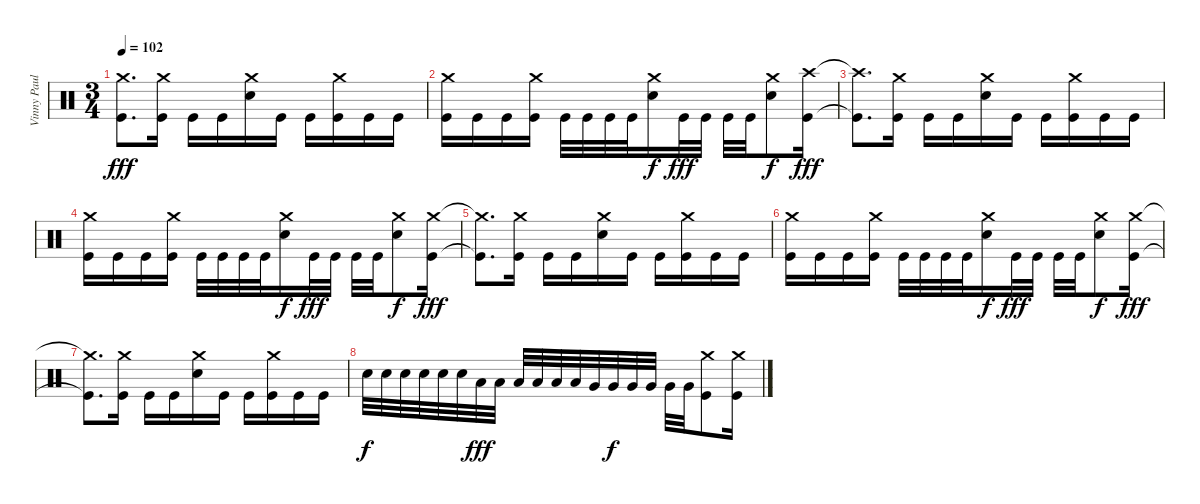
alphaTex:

\track ("Vinny Paul" "Vinny Paul") {instrument percussion}
\staff {score}
\articulation defaults
\ts (3 4)
\tempo 102
\clef neutral
\ks c
("Crash medium (hit)" "Kick (hit)").8{d dy fff} ("Crash medium (hit)" "Kick (hit)").16 "Kick (hit)".16 "Kick (hit)".16 ("Crash medium (hit)" "Electric Snare (hit)").16 "Kick (hit)".16 "Kick (hit)".16 ("Crash medium (hit)" "Kick (hit)").16 "Kick (hit)".16 "Kick (hit)".16 |
("Crash medium (hit)" "Kick (hit)").16 "Kick (hit)".16 "Kick (hit)".16 ("Crash medium (hit)" "Kick (hit)").16 "Kick (hit)".32 "Kick (hit)".32 "Kick (hit)".32 "Kick (hit)".32 ("Crash medium (hit)" "Electric Snare (hit)").16{dy f} "Kick (hit)".32{dy fff} "Kick (hit)".32 "Kick (hit)".32 "Kick (hit)".32 ("Crash medium (hit)" "Electric Snare (hit)").8{dy f} ("Crash high (hit)" "Kick (hit)").16{dy fff} |
("Crash high (hit)"{t} "Kick (hit)"{t}).8{d} ("Crash medium (hit)" "Kick (hit)").16 "Kick (hit)".16 "Kick (hit)".16 ("Crash medium (hit)" "Electric Snare (hit)").16 "Kick (hit)".16 "Kick (hit)".16 ("Crash medium (hit)" "Kick (hit)").16 "Kick (hit)".16 "Kick (hit)".16 |
("Crash medium (hit)" "Kick (hit)").16 "Kick (hit)".16 "Kick (hit)".16 ("Crash medium (hit)" "Kick (hit)").16 "Kick (hit)".32 "Kick (hit)".32 "Kick (hit)".32 "Kick (hit)".32 ("Crash medium (hit)" "Electric Snare (hit)").16{dy f} "Kick (hit)".32{dy fff} "Kick (hit)".32 "Kick (hit)".32 "Kick (hit)".32 ("Crash medium (hit)" "Electric Snare (hit)").8{dy f} ("Crash medium (hit)" "Kick (hit)").16{dy fff} |
("Crash medium (hit)"{t} "Kick (hit)"{t}).8{d} ("Crash medium (hit)" "Kick (hit)").16 "Kick (hit)".16 "Kick (hit)".16 ("Crash medium (hit)" "Electric Snare (hit)").16 "Kick (hit)".16 "Kick (hit)".16 ("Crash medium (hit)" "Kick (hit)").16 "Kick (hit)".16 "Kick (hit)".16 |
("Crash medium (hit)" "Kick (hit)").16 "Kick (hit)".16 "Kick (hit)".16 ("Crash medium (hit)" "Kick (hit)").16 "Kick (hit)".32 "Kick (hit)".32 "Kick (hit)".32 "Kick (hit)".32 ("Crash medium (hit)" "Electric Snare (hit)").16{dy f} "Kick (hit)".32{dy fff} "Kick (hit)".32 "Kick (hit)".32 "Kick (hit)".32 ("Crash medium (hit)" "Electric Snare (hit)").8{dy f} ("Crash medium (hit)" "Kick (hit)").16{dy fff} |
("Crash medium (hit)"{t} "Kick (hit)"{t}).8{d} ("Crash medium (hit)" "Kick (hit)").16 "Kick (hit)".16 "Kick (hit)".16 ("Crash medium (hit)" "Electric Snare (hit)").16 "Kick (hit)".16 "Kick (hit)".16 ("Crash medium (hit)" "Kick (hit)").16 "Kick (hit)".16 "Kick (hit)".16 |
"Electric Snare (hit)".32{dy f} "Electric Snare (hit)".32 "Electric Snare (hit)".32 "Electric Snare (hit)".32 "Electric Snare (hit)".32 "Electric Snare (hit)".32 "Low Tom (hit)".32{dy fff} "Low Tom (hit)".32 "Low Tom (hit)".32 "Low Tom (hit)".32 "Low Tom (hit)".32 "Low Tom (hit)".32 "Very Low Tom (hit)".32 "Very Low Tom (hit)".32{dy f} "Very Low Tom (hit)".32 "Very Low Tom (hit)".32 "Very Low Tom (hit)".32 "Very Low Tom (hit)".32 ("Crash medium (hit)" "Kick (hit)").8 ("Crash medium (hit)" "Kick (hit)").16
